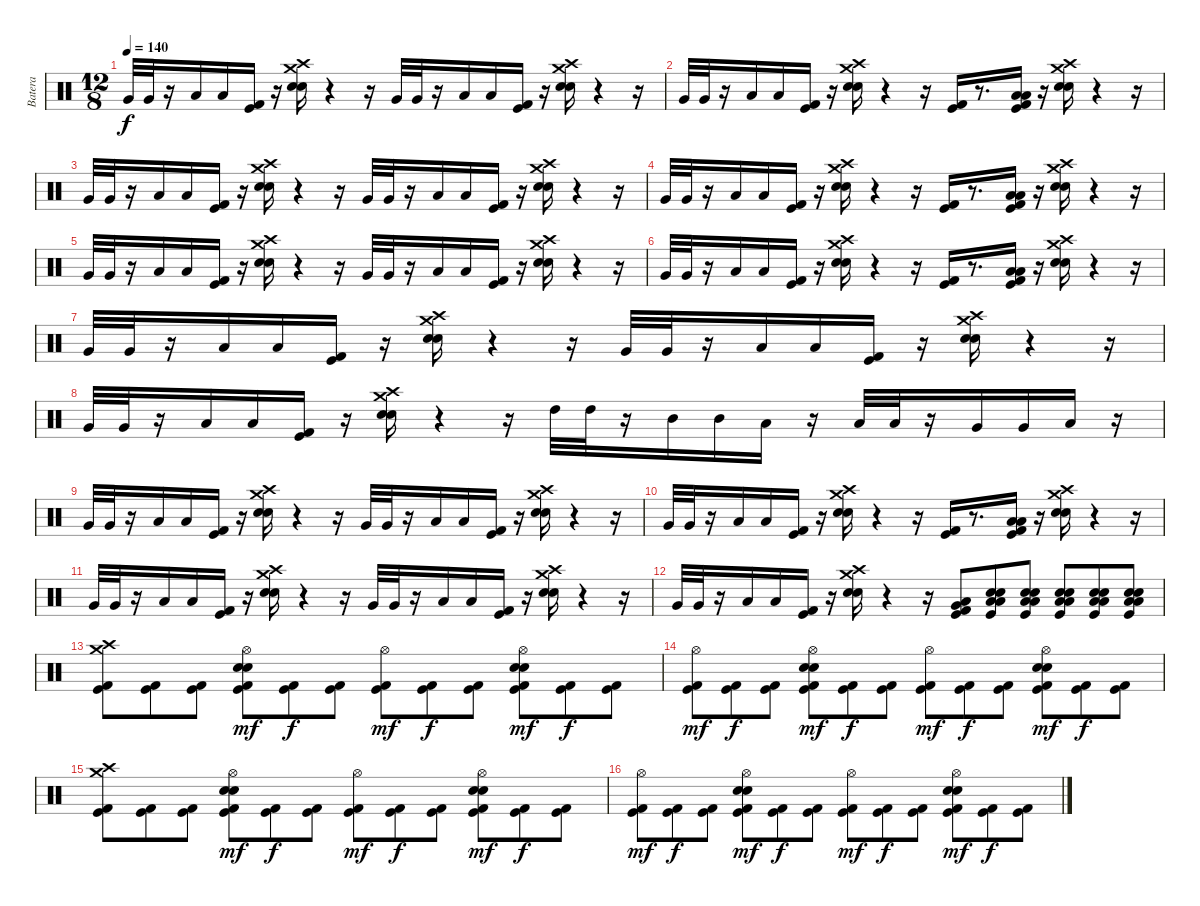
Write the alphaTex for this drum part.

\track ("Batera" "Batera") {instrument percussion}
\staff {score}
\articulation defaults
\ts (12 8)
\tempo 140
\clef neutral
\ks c "Very Low Tom (hit)".32{dy f} "Very Low Tom (hit)".32
r.16 "Low Floor Tom (hit)".16 "Low Floor Tom (hit)".16 ("Kick (hit)" "Kick (hit) 2").16 r.16 ("Crash high (hit)" "Crash medium (hit)" "Electric Snare (hit)" "Snare (hit) 2").16 r.4 r.16 "Very Low Tom (hit)".32 "Very Low Tom (hit)".32 r.16 "Low Floor Tom (hit)".16 "Low Floor Tom (hit)".16 ("Kick (hit) 2" "Kick (hit)").16 r.16 ("Crash high (hit)" "Crash medium (hit)" "Electric Snare (hit)" "Snare (hit) 2").16 r.4 r.16 |
"Very Low Tom (hit)".32 "Very Low Tom (hit)".32 r.16 "Low Floor Tom (hit)".16 "Low Floor Tom (hit)".16 ("Kick (hit) 2" "Kick (hit)").16 r.16 ("Crash high (hit)" "Crash medium (hit)" "Electric Snare (hit)" "Snare (hit) 2").16 r.4 r.16 ("Kick (hit) 2" "Kick (hit)").16 r.8{d} ("Low Tom (hit)" "Low Floor Tom (hit)" "Kick (hit) 2" "Kick (hit)").16 r.16 ("Crash high (hit)" "Crash medium (hit)" "Snare (hit) 2" "Electric Snare (hit)").16 r.4 r.16 |
"Very Low Tom (hit)".32 "Very Low Tom (hit)".32 r.16 "Low Floor Tom (hit)".16 "Low Floor Tom (hit)".16 ("Kick (hit)" "Kick (hit) 2").16 r.16 ("Crash high (hit)" "Crash medium (hit)" "Electric Snare (hit)" "Snare (hit) 2").16 r.4 r.16 "Very Low Tom (hit)".32 "Very Low Tom (hit)".32 r.16 "Low Floor Tom (hit)".16 "Low Floor Tom (hit)".16 ("Kick (hit) 2" "Kick (hit)").16 r.16 ("Crash high (hit)" "Crash medium (hit)" "Electric Snare (hit)" "Snare (hit) 2").16 r.4 r.16 |
"Very Low Tom (hit)".32 "Very Low Tom (hit)".32 r.16 "Low Floor Tom (hit)".16 "Low Floor Tom (hit)".16 ("Kick (hit) 2" "Kick (hit)").16 r.16 ("Crash high (hit)" "Crash medium (hit)" "Electric Snare (hit)" "Snare (hit) 2").16 r.4 r.16 ("Kick (hit) 2" "Kick (hit)").16 r.8{d} ("Low Tom (hit)" "Low Floor Tom (hit)" "Kick (hit) 2" "Kick (hit)").16 r.16 ("Crash high (hit)" "Crash medium (hit)" "Snare (hit) 2" "Electric Snare (hit)").16 r.4 r.16 |
"Very Low Tom (hit)".32 "Very Low Tom (hit)".32 r.16 "Low Floor Tom (hit)".16 "Low Floor Tom (hit)".16 ("Kick (hit)" "Kick (hit) 2").16 r.16 ("Crash high (hit)" "Crash medium (hit)" "Electric Snare (hit)" "Snare (hit) 2").16 r.4 r.16 "Very Low Tom (hit)".32 "Very Low Tom (hit)".32 r.16 "Low Floor Tom (hit)".16 "Low Floor Tom (hit)".16 ("Kick (hit) 2" "Kick (hit)").16 r.16 ("Crash high (hit)" "Crash medium (hit)" "Electric Snare (hit)" "Snare (hit) 2").16 r.4 r.16 |
"Very Low Tom (hit)".32 "Very Low Tom (hit)".32 r.16 "Low Floor Tom (hit)".16 "Low Floor Tom (hit)".16 ("Kick (hit) 2" "Kick (hit)").16 r.16 ("Crash high (hit)" "Crash medium (hit)" "Electric Snare (hit)" "Snare (hit) 2").16 r.4 r.16 ("Kick (hit) 2" "Kick (hit)").16 r.8{d} ("Low Tom (hit)" "Low Floor Tom (hit)" "Kick (hit) 2" "Kick (hit)").16 r.16 ("Crash high (hit)" "Crash medium (hit)" "Snare (hit) 2" "Electric Snare (hit)").16 r.4 r.16 |
"Very Low Tom (hit)".32 "Very Low Tom (hit)".32 r.16 "Low Floor Tom (hit)".16 "Low Floor Tom (hit)".16 ("Kick (hit)" "Kick (hit) 2").16 r.16 ("Crash high (hit)" "Crash medium (hit)" "Electric Snare (hit)" "Snare (hit) 2").16 r.4 r.16 "Very Low Tom (hit)".32 "Very Low Tom (hit)".32 r.16 "Low Floor Tom (hit)".16 "Low Floor Tom (hit)".16 ("Kick (hit) 2" "Kick (hit)").16 r.16 ("Crash high (hit)" "Crash medium (hit)" "Electric Snare (hit)" "Snare (hit) 2").16 r.4 r.16 |
"Very Low Tom (hit)".32 "Very Low Tom (hit)".32 r.16 "Low Floor Tom (hit)".16 "Low Floor Tom (hit)".16 ("Kick (hit) 2" "Kick (hit)").16 r.16 ("Crash high (hit)" "Crash medium (hit)" "Electric Snare (hit)" "Snare (hit) 2").16 r.4 r.16 "High Tom (hit)".32 "High Tom (hit)".32 r.16 "Mid Tom (hit)".16 "Mid Tom (hit)".16 "Low Tom (hit)".16 r.16 "Low Tom (hit)".32 "Low Tom (hit)".32 r.16 "Very Low Tom (hit)".16 "Very Low Tom (hit)".16 "Low Floor Tom (hit)".16 r.16 |
"Very Low Tom (hit)".32 "Very Low Tom (hit)".32 r.16 "Low Floor Tom (hit)".16 "Low Floor Tom (hit)".16 ("Kick (hit)" "Kick (hit) 2").16 r.16 ("Crash high (hit)" "Crash medium (hit)" "Electric Snare (hit)" "Snare (hit) 2").16 r.4 r.16 "Very Low Tom (hit)".32 "Very Low Tom (hit)".32 r.16 "Low Floor Tom (hit)".16 "Low Floor Tom (hit)".16 ("Kick (hit) 2" "Kick (hit)").16 r.16 ("Crash high (hit)" "Crash medium (hit)" "Electric Snare (hit)" "Snare (hit) 2").16 r.4 r.16 |
"Very Low Tom (hit)".32 "Very Low Tom (hit)".32 r.16 "Low Floor Tom (hit)".16 "Low Floor Tom (hit)".16 ("Kick (hit) 2" "Kick (hit)").16 r.16 ("Crash high (hit)" "Crash medium (hit)" "Electric Snare (hit)" "Snare (hit) 2").16 r.4 r.16 ("Kick (hit) 2" "Kick (hit)").16 r.8{d} ("Low Tom (hit)" "Low Floor Tom (hit)" "Kick (hit) 2" "Kick (hit)").16 r.16 ("Crash high (hit)" "Crash medium (hit)" "Snare (hit) 2" "Electric Snare (hit)").16 r.4 r.16 |
"Very Low Tom (hit)".32 "Very Low Tom (hit)".32 r.16 "Low Floor Tom (hit)".16 "Low Floor Tom (hit)".16 ("Kick (hit)" "Kick (hit) 2").16 r.16 ("Crash high (hit)" "Crash medium (hit)" "Electric Snare (hit)" "Snare (hit) 2").16 r.4 r.16 "Very Low Tom (hit)".32 "Very Low Tom (hit)".32 r.16 "Low Floor Tom (hit)".16 "Low Floor Tom (hit)".16 ("Kick (hit) 2" "Kick (hit)").16 r.16 ("Crash high (hit)" "Crash medium (hit)" "Electric Snare (hit)" "Snare (hit) 2").16 r.4 r.16 |
"Very Low Tom (hit)".32 "Very Low Tom (hit)".32 r.16 "Low Floor Tom (hit)".16 "Low Floor Tom (hit)".16 ("Kick (hit) 2" "Kick (hit)").16 r.16 ("Crash high (hit)" "Crash medium (hit)" "Electric Snare (hit)" "Snare (hit) 2").16 r.4 r.16 ("Very Low Tom (hit)" "Low Floor Tom (hit)" "Kick (hit) 2" "Kick (hit)").8 ("Kick (hit)" "Low Tom (hit)" "Low Floor Tom (hit)" "Electric Snare (hit)" "Snare (hit) 2").8 ("Kick (hit)" "Low Floor Tom (hit)" "Low Tom (hit)" "Electric Snare (hit)" "Snare (hit) 2").8 ("Kick (hit)" "Low Floor Tom (hit)" "Low Tom (hit)" "Electric Snare (hit)" "Snare (hit) 2").8 ("Kick (hit)" "Low Floor Tom (hit)" "Low Tom (hit)" "Electric Snare (hit)" "Snare (hit) 2").8 ("Kick (hit)" "Low Floor Tom (hit)" "Low Tom (hit)" "Electric Snare (hit)" "Snare (hit) 2").8 |
("Crash high (hit)" "Crash medium (hit)" "Kick (hit) 2" "Kick (hit)").8 ("Kick (hit) 2" "Kick (hit)").8 ("Kick (hit) 2" "Kick (hit)").8 ("Hi-Hat (open)" "Electric Snare (hit)" "Snare (hit) 2" "Kick (hit) 2" "Kick (hit)").8{dy mf} ("Kick (hit) 2" "Kick (hit)").8{dy f} ("Kick (hit) 2" "Kick (hit)").8 ("Hi-Hat (open)" "Kick (hit) 2" "Kick (hit)").8{dy mf} ("Kick (hit) 2" "Kick (hit)").8{dy f} ("Kick (hit) 2" "Kick (hit)").8 ("Hi-Hat (open)" "Electric Snare (hit)" "Snare (hit) 2" "Kick (hit) 2" "Kick (hit)").8{dy mf} ("Kick (hit) 2" "Kick (hit)").8{dy f} ("Kick (hit) 2" "Kick (hit)").8 |
("Hi-Hat (open)" "Kick (hit)" "Kick (hit) 2").8{dy mf} ("Kick (hit)" "Kick (hit) 2").8{dy f} ("Kick (hit) 2" "Kick (hit)").8 ("Hi-Hat (open)" "Electric Snare (hit)" "Snare (hit) 2" "Kick (hit) 2" "Kick (hit)").8{dy mf} ("Kick (hit) 2" "Kick (hit)").8{dy f} ("Kick (hit) 2" "Kick (hit)").8 ("Hi-Hat (open)" "Kick (hit) 2" "Kick (hit)").8{dy mf} ("Kick (hit) 2" "Kick (hit)").8{dy f} ("Kick (hit) 2" "Kick (hit)").8 ("Hi-Hat (open)" "Electric Snare (hit)" "Snare (hit) 2" "Kick (hit) 2" "Kick (hit)").8{dy mf} ("Kick (hit) 2" "Kick (hit)").8{dy f} ("Kick (hit) 2" "Kick (hit)").8 |
("Crash high (hit)" "Crash medium (hit)" "Kick (hit) 2" "Kick (hit)").8 ("Kick (hit) 2" "Kick (hit)").8 ("Kick (hit) 2" "Kick (hit)").8 ("Hi-Hat (open)" "Electric Snare (hit)" "Snare (hit) 2" "Kick (hit) 2" "Kick (hit)").8{dy mf} ("Kick (hit) 2" "Kick (hit)").8{dy f} ("Kick (hit) 2" "Kick (hit)").8 ("Hi-Hat (open)" "Kick (hit) 2" "Kick (hit)").8{dy mf} ("Kick (hit) 2" "Kick (hit)").8{dy f} ("Kick (hit) 2" "Kick (hit)").8 ("Hi-Hat (open)" "Electric Snare (hit)" "Snare (hit) 2" "Kick (hit) 2" "Kick (hit)").8{dy mf} ("Kick (hit) 2" "Kick (hit)").8{dy f} ("Kick (hit) 2" "Kick (hit)").8 |
("Hi-Hat (open)" "Kick (hit)" "Kick (hit) 2").8{dy mf} ("Kick (hit)" "Kick (hit) 2").8{dy f} ("Kick (hit) 2" "Kick (hit)").8 ("Hi-Hat (open)" "Electric Snare (hit)" "Snare (hit) 2" "Kick (hit) 2" "Kick (hit)").8{dy mf} ("Kick (hit) 2" "Kick (hit)").8{dy f} ("Kick (hit) 2" "Kick (hit)").8 ("Hi-Hat (open)" "Kick (hit) 2" "Kick (hit)").8{dy mf} ("Kick (hit) 2" "Kick (hit)").8{dy f} ("Kick (hit) 2" "Kick (hit)").8 ("Hi-Hat (open)" "Electric Snare (hit)" "Snare (hit) 2" "Kick (hit) 2" "Kick (hit)").8{dy mf} ("Kick (hit) 2" "Kick (hit)").8{dy f} ("Kick (hit) 2" "Kick (hit)").8
